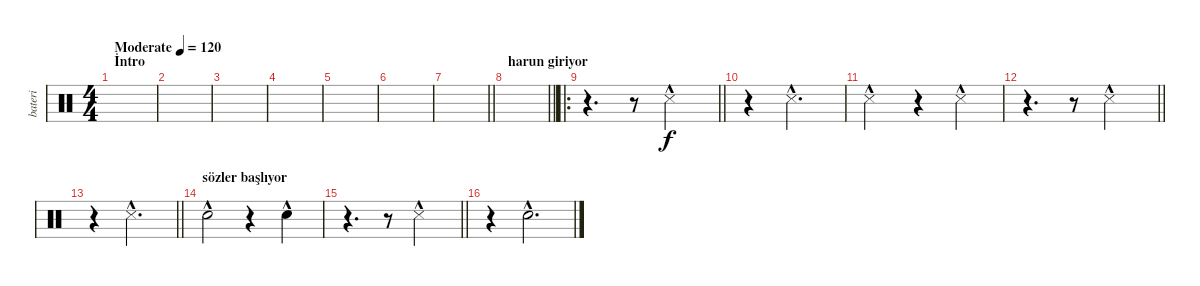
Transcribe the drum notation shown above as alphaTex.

\track ("bateri" "bateri") {instrument percussion}
\staff {score}
\articulation defaults
\ts (4 4)
\section ("" "İntro")
\tempo (120 "Moderate")
\clef neutral
\ks c
|
|
|
|
|
|
\barLineRight lightlight
|
\section ("" "harun giriyor")
\barLineRight lightlight
|
\ro
\barLineRight lightlight
r.4{d} r.8 "Snare (side stick) 3"{hac}.2 |
r.4 "Snare (side stick) 3"{hac}.2{d} |
"Snare (side stick) 3"{hac}.2 r.4 "Snare (side stick) 3"{hac}.4 |
\barLineRight lightlight
r.4{d} r.8 "Snare (side stick) 3"{hac}.2 |
\barLineRight lightlight
r.4 "Snare (side stick) 3"{hac}.2{d} |
\section ("" "sözler başlıyor")
"Electric Snare (hit)"{hac}.2 r.4 "Electric Snare (hit)"{hac}.4 |
\barLineRight lightlight
r.4{d} r.8 "Snare (side stick) 3"{hac}.2 |
r.4 "Electric Snare (hit)"{hac}.2{d}
